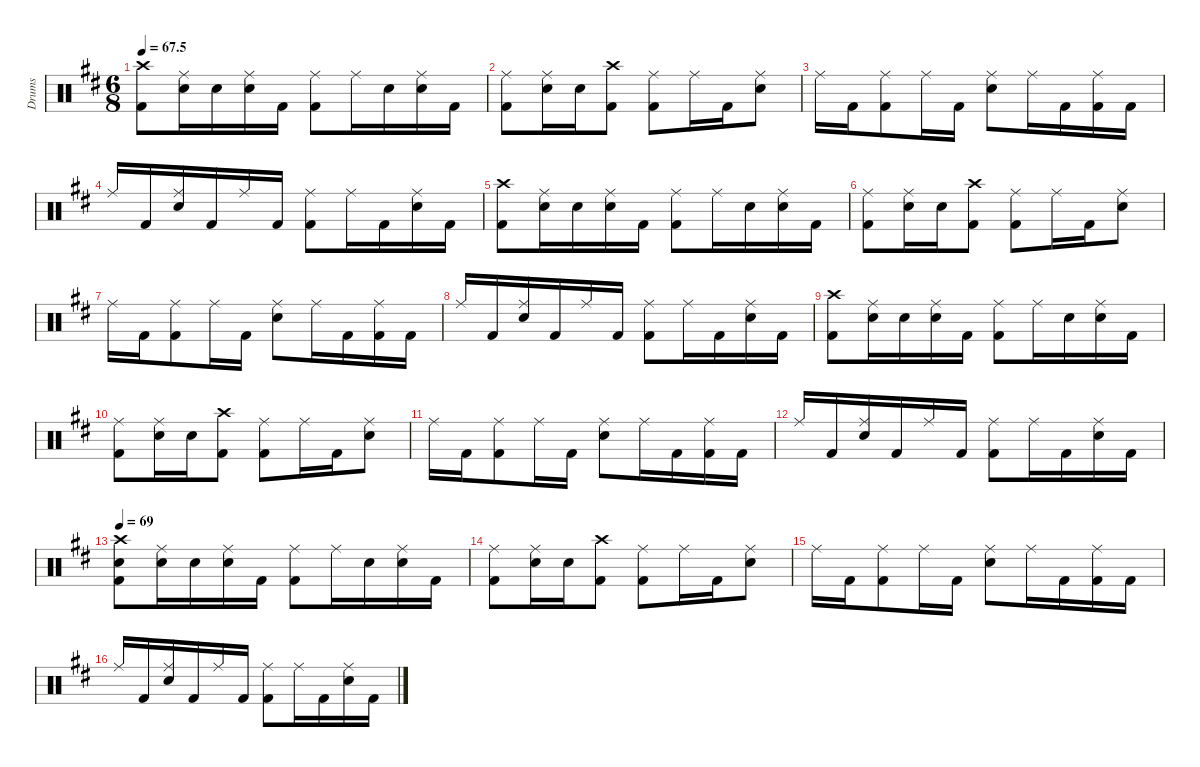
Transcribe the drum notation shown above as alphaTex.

\defaultSystemsLayout 4
\hideDynamics
\bracketExtendMode groupsimilarinstruments
\firstSystemTrackNameMode fullname
\otherSystemsTrackNameOrientation horizontal
\track ("Drums" "drm.") {defaultSystemsLayout 4 instrument percussion}
\staff {score}
\articulation defaults
\ts (6 8)
\tempo
67.5
\accidentals auto
\clef neutral
\ottava regular
\simile none
\ks bminor
("Kick (hit) 2"{acc forcenatural} "Crash high (hit)"{acc #}).8{dy ff beam Down} ("Snare (hit) 2"{acc forcenatural} "Ride (middle)"{acc #}).16{beam Down} "Snare (hit) 2"{acc forcenatural}.16{dy mf beam Down} ("Snare (hit) 2"{acc forcenatural} "Ride (middle)"{acc #}).16{dy ff beam Down} "Kick (hit) 2"{acc forcenatural}.16{beam Down} ("Ride (middle)"{acc #} "Kick (hit) 2"{acc forcenatural}).8{beam Down} "Ride (middle)"{acc #}.16{beam Down} "Snare (hit) 2"{acc forcenatural}.16{beam Down} ("Ride (middle)"{acc #} "Snare (hit) 2"{acc forcenatural}).16{beam Down} "Kick (hit) 2"{acc forcenatural}.16{beam Down} |
("Kick (hit) 2"{acc forcenatural} "Ride (middle)"{acc #}).8{beam Down} ("Snare (hit) 2"{acc forcenatural} "Ride (middle)"{acc #}).16{beam Down} "Snare (hit) 2"{acc forcenatural}.16{dy mf beam Down} ("Kick (hit) 2"{acc forcenatural} "Crash high (hit)"{acc #}).8{dy ff beam Down} ("Ride (middle)"{acc #} "Kick (hit) 2"{acc forcenatural}).8{beam Down} "Ride (middle)"{acc #}.16{beam Down} "Kick (hit) 2"{acc forcenatural}.16{beam Down} ("Ride (middle)"{acc #} "Snare (hit) 2"{acc forcenatural}).8{beam Down} |
"Ride (middle)"{acc #}.16{beam Down} "Kick (hit) 2"{acc forcenatural}.16{beam Down} ("Ride (middle)"{acc #} "Kick (hit) 2"{acc forcenatural}).8{beam Down} "Ride (middle)"{acc #}.16{beam Down} "Kick (hit) 2"{acc forcenatural}.16{beam Down} ("Ride (middle)"{acc #} "Snare (hit) 2"{acc forcenatural}).8{beam Down} "Ride (middle)"{acc #}.16{beam Down} "Kick (hit) 2"{acc forcenatural}.16{beam Down} ("Kick (hit) 2"{acc forcenatural} "Ride (middle)"{acc #}).16{beam Down} "Kick (hit) 2"{acc forcenatural}.16{beam Down} |
"Ride (middle)"{acc #}.16{beam Up} "Kick (hit) 2"{acc forcenatural}.16{beam Up} ("Ride (middle)"{acc #} "Snare (hit) 2"{acc forcenatural}).16{beam Up} "Kick (hit) 2"{acc forcenatural}.16{beam Up} "Ride (middle)"{acc #}.16{beam Up} "Kick (hit) 2"{acc forcenatural}.16{beam Up} ("Ride (middle)"{acc #} "Kick (hit) 2"{acc forcenatural}).8{beam Down} "Ride (middle)"{acc #}.16{beam Down} "Kick (hit) 2"{acc forcenatural}.16{beam Down} ("Ride (middle)"{acc #} "Snare (hit) 2"{acc forcenatural}).16{beam Down} "Kick (hit) 2"{acc forcenatural}.16{beam Down} |
("Kick (hit) 2"{acc forcenatural} "Crash high (hit)"{acc #}).8{beam Down} ("Snare (hit) 2"{acc forcenatural} "Ride (middle)"{acc #}).16{beam Down} "Snare (hit) 2"{acc forcenatural}.16{dy mf beam Down} ("Snare (hit) 2"{acc forcenatural} "Ride (middle)"{acc #}).16{dy ff beam Down} "Kick (hit) 2"{acc forcenatural}.16{beam Down} ("Ride (middle)"{acc #} "Kick (hit) 2"{acc forcenatural}).8{beam Down} "Ride (middle)"{acc #}.16{beam Down} "Snare (hit) 2"{acc forcenatural}.16{beam Down} ("Ride (middle)"{acc #} "Snare (hit) 2"{acc forcenatural}).16{beam Down} "Kick (hit) 2"{acc forcenatural}.16{beam Down} |
("Kick (hit) 2"{acc forcenatural} "Ride (middle)"{acc #}).8{beam Down} ("Snare (hit) 2"{acc forcenatural} "Ride (middle)"{acc #}).16{beam Down} "Snare (hit) 2"{acc forcenatural}.16{beam Down} ("Kick (hit) 2"{acc forcenatural} "Crash high (hit)"{acc #}).8{beam Down} ("Ride (middle)"{acc #} "Kick (hit) 2"{acc forcenatural}).8{beam Down} "Ride (middle)"{acc #}.16{beam Down} "Kick (hit) 2"{acc forcenatural}.16{beam Down} ("Ride (middle)"{acc #} "Snare (hit) 2"{acc forcenatural}).8{beam Down} |
"Ride (middle)"{acc #}.16{beam Down} "Kick (hit) 2"{acc forcenatural}.16{beam Down} ("Ride (middle)"{acc #} "Kick (hit) 2"{acc forcenatural}).8{beam Down} "Ride (middle)"{acc #}.16{beam Down} "Kick (hit) 2"{acc forcenatural}.16{beam Down} ("Ride (middle)"{acc #} "Snare (hit) 2"{acc forcenatural}).8{beam Down} "Ride (middle)"{acc #}.16{beam Down} "Kick (hit) 2"{acc forcenatural}.16{beam Down} ("Kick (hit) 2"{acc forcenatural} "Ride (middle)"{acc #}).16{beam Down} "Kick (hit) 2"{acc forcenatural}.16{beam Down} |
"Ride (middle)"{acc #}.16{beam Up} "Kick (hit) 2"{acc forcenatural}.16{beam Up} ("Ride (middle)"{acc #} "Snare (hit) 2"{acc forcenatural}).16{beam Up} "Kick (hit) 2"{acc forcenatural}.16{beam Up} "Ride (middle)"{acc #}.16{beam Up} "Kick (hit) 2"{acc forcenatural}.16{beam Up} ("Ride (middle)"{acc #} "Kick (hit) 2"{acc forcenatural}).8{beam Down} "Ride (middle)"{acc #}.16{beam Down} "Kick (hit) 2"{acc forcenatural}.16{beam Down} ("Ride (middle)"{acc #} "Snare (hit) 2"{acc forcenatural}).16{beam Down} "Kick (hit) 2"{acc forcenatural}.16{beam Down} |
("Kick (hit) 2"{acc forcenatural} "Crash high (hit)"{acc #}).8{beam Down} ("Snare (hit) 2"{acc forcenatural} "Ride (middle)"{acc #}).16{beam Down} "Snare (hit) 2"{acc forcenatural}.16{beam Down} ("Snare (hit) 2"{acc forcenatural} "Ride (middle)"{acc #}).16{beam Down} "Kick (hit) 2"{acc forcenatural}.16{beam Down} ("Ride (middle)"{acc #} "Kick (hit) 2"{acc forcenatural}).8{beam Down} "Ride (middle)"{acc #}.16{beam Down} "Snare (hit) 2"{acc forcenatural}.16{beam Down} ("Ride (middle)"{acc #} "Snare (hit) 2"{acc forcenatural}).16{beam Down} "Kick (hit) 2"{acc forcenatural}.16{beam Down} |
("Kick (hit) 2"{acc forcenatural} "Ride (middle)"{acc #}).8{beam Down} ("Snare (hit) 2"{acc forcenatural} "Ride (middle)"{acc #}).16{beam Down} "Snare (hit) 2"{acc forcenatural}.16{beam Down} ("Kick (hit) 2"{acc forcenatural} "Crash high (hit)"{acc #}).8{beam Down} ("Ride (middle)"{acc #} "Kick (hit) 2"{acc forcenatural}).8{beam Down} "Ride (middle)"{acc #}.16{beam Down} "Kick (hit) 2"{acc forcenatural}.16{beam Down} ("Ride (middle)"{acc #} "Snare (hit) 2"{acc forcenatural}).8{beam Down} |
"Ride (middle)"{acc #}.16{beam Down} "Kick (hit) 2"{acc forcenatural}.16{beam Down} ("Ride (middle)"{acc #} "Kick (hit) 2"{acc forcenatural}).8{beam Down} "Ride (middle)"{acc #}.16{beam Down} "Kick (hit) 2"{acc forcenatural}.16{beam Down} ("Ride (middle)"{acc #} "Snare (hit) 2"{acc forcenatural}).8{beam Down} "Ride (middle)"{acc #}.16{beam Down} "Kick (hit) 2"{acc forcenatural}.16{beam Down} ("Kick (hit) 2"{acc forcenatural} "Ride (middle)"{acc #}).16{beam Down} "Kick (hit) 2"{acc forcenatural}.16{beam Down} |
"Ride (middle)"{acc #}.16{beam Up} "Kick (hit) 2"{acc forcenatural}.16{beam Up} ("Ride (middle)"{acc #} "Snare (hit) 2"{acc forcenatural}).16{beam Up} "Kick (hit) 2"{acc forcenatural}.16{beam Up} "Ride (middle)"{acc #}.16{beam Up} "Kick (hit) 2"{acc forcenatural}.16{beam Up} ("Ride (middle)"{acc #} "Kick (hit) 2"{acc forcenatural}).8{beam Down} "Ride (middle)"{acc #}.16{beam Down} "Kick (hit) 2"{acc forcenatural}.16{beam Down} ("Ride (middle)"{acc #} "Snare (hit) 2"{acc forcenatural}).16{beam Down} "Kick (hit) 2"{acc forcenatural}.16{beam Down} |
\tempo 69
("Kick (hit) 2"{acc forcenatural} "Snare (hit) 2"{acc forcenatural} "Crash high (hit)"{acc #}).8{beam Down} ("Snare (hit) 2"{acc forcenatural} "Ride (middle)"{acc #}).16{beam Down} "Snare (hit) 2"{acc forcenatural}.16{beam Down} ("Snare (hit) 2"{acc forcenatural} "Ride (middle)"{acc #}).16{beam Down} "Kick (hit) 2"{acc forcenatural}.16{beam Down} ("Ride (middle)"{acc #} "Kick (hit) 2"{acc forcenatural}).8{beam Down} "Ride (middle)"{acc #}.16{beam Down} "Snare (hit) 2"{acc forcenatural}.16{beam Down} ("Ride (middle)"{acc #} "Snare (hit) 2"{acc forcenatural}).16{beam Down} "Kick (hit) 2"{acc forcenatural}.16{beam Down} |
("Kick (hit) 2"{acc forcenatural} "Ride (middle)"{acc #}).8{beam Down} ("Snare (hit) 2"{acc forcenatural} "Ride (middle)"{acc #}).16{beam Down} "Snare (hit) 2"{acc forcenatural}.16{beam Down} ("Kick (hit) 2"{acc forcenatural} "Crash high (hit)"{acc #}).8{beam Down} ("Ride (middle)"{acc #} "Kick (hit) 2"{acc forcenatural}).8{beam Down} "Ride (middle)"{acc #}.16{beam Down} "Kick (hit) 2"{acc forcenatural}.16{beam Down} ("Ride (middle)"{acc #} "Snare (hit) 2"{acc forcenatural}).8{beam Down} |
"Ride (middle)"{acc #}.16{beam Down} "Kick (hit) 2"{acc forcenatural}.16{beam Down} ("Ride (middle)"{acc #} "Kick (hit) 2"{acc forcenatural}).8{beam Down} "Ride (middle)"{acc #}.16{beam Down} "Kick (hit) 2"{acc forcenatural}.16{beam Down} ("Ride (middle)"{acc #} "Snare (hit) 2"{acc forcenatural}).8{beam Down} "Ride (middle)"{acc #}.16{beam Down} "Kick (hit) 2"{acc forcenatural}.16{beam Down} ("Kick (hit) 2"{acc forcenatural} "Ride (middle)"{acc #}).16{beam Down} "Kick (hit) 2"{acc forcenatural}.16{beam Down} |
"Ride (middle)"{acc #}.16{beam Up} "Kick (hit) 2"{acc forcenatural}.16{beam Up} ("Ride (middle)"{acc #} "Snare (hit) 2"{acc forcenatural}).16{beam Up} "Kick (hit) 2"{acc forcenatural}.16{beam Up} "Ride (middle)"{acc #}.16{beam Up} "Kick (hit) 2"{acc forcenatural}.16{beam Up} ("Ride (middle)"{acc #} "Kick (hit) 2"{acc forcenatural}).8{beam Down} "Ride (middle)"{acc #}.16{beam Down} "Kick (hit) 2"{acc forcenatural}.16{beam Down} ("Ride (middle)"{acc #} "Snare (hit) 2"{acc forcenatural}).16{beam Down} "Kick (hit) 2"{acc forcenatural}.16{beam Down}
